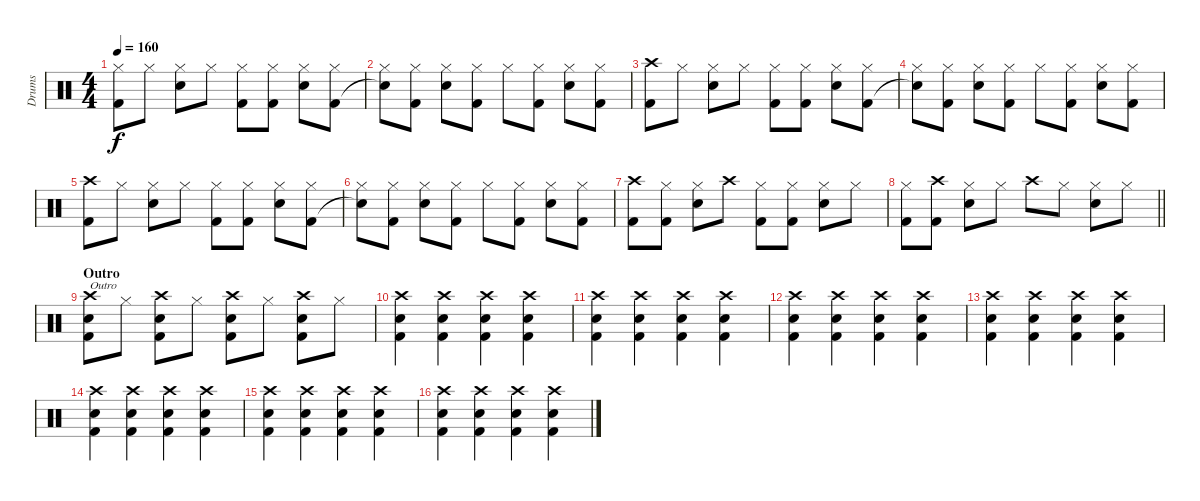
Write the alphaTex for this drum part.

\track ("Drums" "Drums") {instrument percussion}
\staff {score}
\articulation defaults
\ts (4 4)
\tempo 160
\clef neutral
\ks c
("Hi-Hat (closed)" "Kick (hit) 2").8{dy f} "Hi-Hat (closed)".8 ("Hi-Hat (closed)" "Electric Snare (hit)").8 "Hi-Hat (closed)".8 ("Hi-Hat (closed)" "Kick (hit) 2").8 ("Hi-Hat (closed)" "Kick (hit) 2").8 ("Hi-Hat (closed)" "Electric Snare (hit)").8 ("Hi-Hat (closed)" "Kick (hit) 2").8 |
("Hi-Hat (closed)" "Snare (hit)"{t}).8 ("Hi-Hat (closed)" "Kick (hit) 2").8 ("Hi-Hat (closed)" "Electric Snare (hit)").8 ("Hi-Hat (closed)" "Kick (hit) 2").8 "Hi-Hat (closed)".8 ("Hi-Hat (closed)" "Kick (hit) 2").8 ("Hi-Hat (closed)" "Electric Snare (hit)").8 ("Hi-Hat (closed)" "Kick (hit) 2").8 |
("Crash high (hit)" "Kick (hit) 2").8 "Hi-Hat (closed)".8 ("Hi-Hat (closed)" "Electric Snare (hit)").8 "Hi-Hat (closed)".8 ("Hi-Hat (closed)" "Kick (hit) 2").8 ("Hi-Hat (closed)" "Kick (hit) 2").8 ("Hi-Hat (closed)" "Electric Snare (hit)").8 ("Hi-Hat (closed)" "Kick (hit) 2").8 |
("Hi-Hat (closed)" "Snare (hit)"{t}).8 ("Hi-Hat (closed)" "Kick (hit) 2").8 ("Hi-Hat (closed)" "Electric Snare (hit)").8 ("Hi-Hat (closed)" "Kick (hit) 2").8 "Hi-Hat (closed)".8 ("Hi-Hat (closed)" "Kick (hit) 2").8 ("Hi-Hat (closed)" "Electric Snare (hit)").8 ("Hi-Hat (closed)" "Kick (hit) 2").8 |
("Crash high (hit)" "Kick (hit) 2").8 "Hi-Hat (closed)".8 ("Hi-Hat (closed)" "Electric Snare (hit)").8 "Hi-Hat (closed)".8 ("Hi-Hat (closed)" "Kick (hit) 2").8 ("Hi-Hat (closed)" "Kick (hit) 2").8 ("Hi-Hat (closed)" "Electric Snare (hit)").8 ("Hi-Hat (closed)" "Kick (hit) 2").8 |
("Hi-Hat (closed)" "Snare (hit)"{t}).8 ("Hi-Hat (closed)" "Kick (hit) 2").8 ("Hi-Hat (closed)" "Electric Snare (hit)").8 ("Hi-Hat (closed)" "Kick (hit) 2").8 "Hi-Hat (closed)".8 ("Hi-Hat (closed)" "Kick (hit) 2").8 ("Hi-Hat (closed)" "Electric Snare (hit)").8 ("Hi-Hat (closed)" "Kick (hit) 2").8 |
("Crash high (hit)" "Kick (hit) 2").8 ("Hi-Hat (closed)" "Kick (hit) 2").8 ("Hi-Hat (closed)" "Electric Snare (hit)").8 "Crash high (hit)".8 ("Hi-Hat (closed)" "Kick (hit) 2").8 ("Hi-Hat (closed)" "Kick (hit) 2").8 ("Hi-Hat (closed)" "Electric Snare (hit)").8 "Hi-Hat (closed)".8 |
\barLineRight lightlight
("Hi-Hat (closed)" "Kick (hit) 2").8 ("Crash high (hit)" "Kick (hit) 2").8 ("Hi-Hat (closed)" "Electric Snare (hit)").8 "Hi-Hat (closed)".8 "Crash high (hit)".8 "Hi-Hat (closed)".8 ("Hi-Hat (closed)" "Electric Snare (hit)").8 "Hi-Hat (closed)".8 |
\section ("" "Outro")
("Crash high (hit)" "Electric Snare (hit)" "Kick (hit) 2").8{txt "Outro"} "Hi-Hat (closed)".8 ("Crash high (hit)" "Electric Snare (hit)" "Kick (hit) 2").8 "Hi-Hat (closed)".8 ("Crash high (hit)" "Electric Snare (hit)" "Kick (hit) 2").8 "Hi-Hat (closed)".8 ("Crash high (hit)" "Electric Snare (hit)" "Kick (hit) 2").8 "Hi-Hat (closed)".8 |
("Crash high (hit)" "Electric Snare (hit)" "Kick (hit) 2").4 ("Crash high (hit)" "Electric Snare (hit)" "Kick (hit) 2").4 ("Crash high (hit)" "Electric Snare (hit)" "Kick (hit) 2").4 ("Crash high (hit)" "Electric Snare (hit)" "Kick (hit) 2").4 |
("Crash high (hit)" "Electric Snare (hit)" "Kick (hit) 2").4 ("Crash high (hit)" "Electric Snare (hit)" "Kick (hit) 2").4 ("Crash high (hit)" "Electric Snare (hit)" "Kick (hit) 2").4 ("Crash high (hit)" "Electric Snare (hit)" "Kick (hit) 2").4 |
("Crash high (hit)" "Electric Snare (hit)" "Kick (hit) 2").4 ("Crash high (hit)" "Electric Snare (hit)" "Kick (hit) 2").4 ("Crash high (hit)" "Electric Snare (hit)" "Kick (hit) 2").4 ("Crash high (hit)" "Electric Snare (hit)" "Kick (hit) 2").4 |
("Crash high (hit)" "Electric Snare (hit)" "Kick (hit) 2").4 ("Crash high (hit)" "Electric Snare (hit)" "Kick (hit) 2").4 ("Crash high (hit)" "Electric Snare (hit)" "Kick (hit) 2").4 ("Crash high (hit)" "Electric Snare (hit)" "Kick (hit) 2").4 |
("Crash high (hit)" "Electric Snare (hit)" "Kick (hit) 2").4 ("Crash high (hit)" "Electric Snare (hit)" "Kick (hit) 2").4 ("Crash high (hit)" "Electric Snare (hit)" "Kick (hit) 2").4 ("Crash high (hit)" "Electric Snare (hit)" "Kick (hit) 2").4 |
("Crash high (hit)" "Electric Snare (hit)" "Kick (hit) 2").4 ("Crash high (hit)" "Electric Snare (hit)" "Kick (hit) 2").4 ("Crash high (hit)" "Electric Snare (hit)" "Kick (hit) 2").4 ("Crash high (hit)" "Electric Snare (hit)" "Kick (hit) 2").4 |
("Crash high (hit)" "Electric Snare (hit)" "Kick (hit) 2").4 ("Crash high (hit)" "Electric Snare (hit)" "Kick (hit) 2").4 ("Crash high (hit)" "Electric Snare (hit)" "Kick (hit) 2").4 ("Crash high (hit)" "Electric Snare (hit)" "Kick (hit) 2").4
